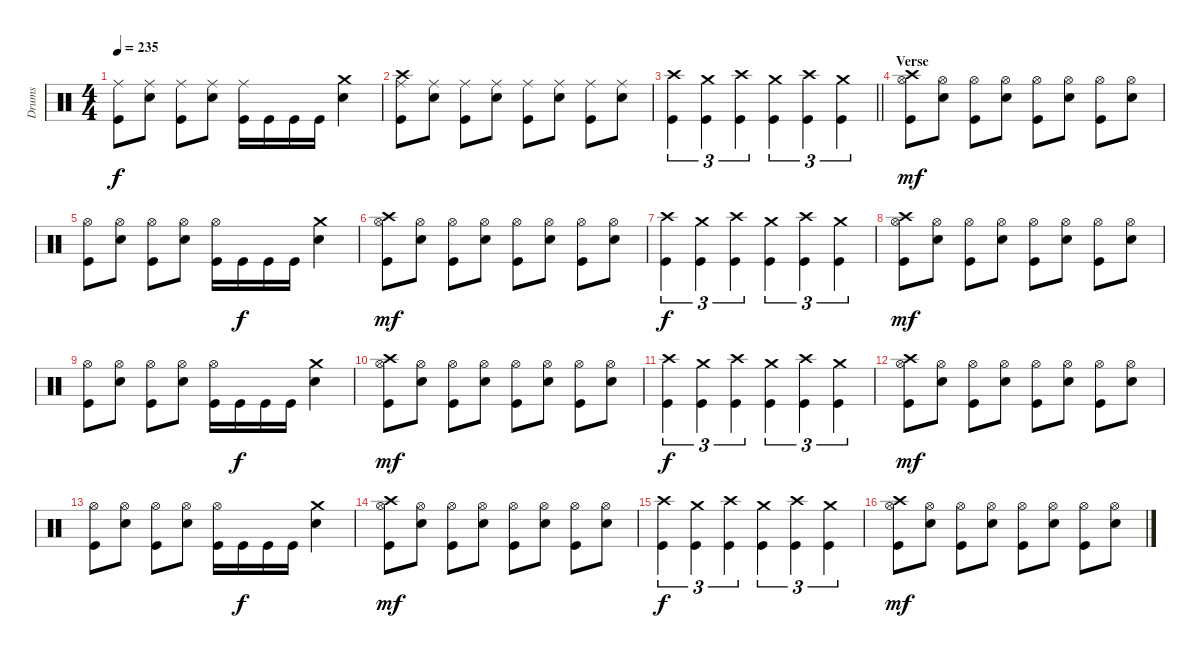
\track ("Drums" "Drums") {instrument percussion}
\staff {score}
\articulation defaults
\ts (4 4)
\tempo 235
\clef neutral
\ks c
("Ride (middle)" "Kick (hit)").8{dy f} ("Ride (middle)" "Electric Snare (hit)").8 ("Ride (middle)" "Kick (hit)").8 ("Ride (middle)" "Electric Snare (hit)").8 ("Ride (middle)" "Kick (hit)").16 "Kick (hit)".16 "Kick (hit)".16 "Kick (hit)".16 ("Crash medium (hit)" "Electric Snare (hit)").4 |
("Crash high (hit)" "Ride (middle)" "Kick (hit)").8 ("Ride (middle)" "Electric Snare (hit)").8 ("Ride (middle)" "Kick (hit)").8 ("Ride (middle)" "Electric Snare (hit)").8 ("Ride (middle)" "Kick (hit)").8 ("Ride (middle)" "Electric Snare (hit)").8 ("Ride (middle)" "Kick (hit)").8 ("Ride (middle)" "Electric Snare (hit)").8 |
\barLineRight lightlight
("Crash high (hit)" "Kick (hit)").4{tu (3 2)} ("Crash medium (hit)" "Kick (hit)").4{tu (3 2)} ("Crash high (hit)" "Kick (hit)").4{tu (3 2)} ("Crash medium (hit)" "Kick (hit)").4{tu (3 2)} ("Crash high (hit)" "Kick (hit)").4{tu (3 2)} ("Crash medium (hit)" "Kick (hit)").4{tu (3 2)} |
\section ("" "Verse")
("Crash high (hit)" "Hi-Hat (open)" "Kick (hit)").8{dy mf} ("Hi-Hat (open)" "Electric Snare (hit)").8 ("Hi-Hat (open)" "Kick (hit)").8 ("Hi-Hat (open)" "Electric Snare (hit)").8 ("Hi-Hat (open)" "Kick (hit)").8 ("Hi-Hat (open)" "Electric Snare (hit)").8 ("Hi-Hat (open)" "Kick (hit)").8 ("Hi-Hat (open)" "Electric Snare (hit)").8 |
("Hi-Hat (open)" "Kick (hit)").8 ("Hi-Hat (open)" "Electric Snare (hit)").8 ("Hi-Hat (open)" "Kick (hit)").8 ("Hi-Hat (open)" "Electric Snare (hit)").8 ("Hi-Hat (open)" "Kick (hit)").16 "Kick (hit)".16{dy f} "Kick (hit)".16 "Kick (hit)".16 ("Crash medium (hit)" "Electric Snare (hit)").4 |
("Crash high (hit)" "Hi-Hat (open)" "Kick (hit)").8{dy mf} ("Hi-Hat (open)" "Electric Snare (hit)").8 ("Hi-Hat (open)" "Kick (hit)").8 ("Hi-Hat (open)" "Electric Snare (hit)").8 ("Hi-Hat (open)" "Kick (hit)").8 ("Hi-Hat (open)" "Electric Snare (hit)").8 ("Hi-Hat (open)" "Kick (hit)").8 ("Hi-Hat (open)" "Electric Snare (hit)").8 |
("Crash high (hit)" "Kick (hit)").4{tu (3 2) dy f} ("Crash medium (hit)" "Kick (hit)").4{tu (3 2)} ("Crash high (hit)" "Kick (hit)").4{tu (3 2)} ("Crash medium (hit)" "Kick (hit)").4{tu (3 2)} ("Crash high (hit)" "Kick (hit)").4{tu (3 2)} ("Crash medium (hit)" "Kick (hit)").4{tu (3 2)} |
("Crash high (hit)" "Hi-Hat (open)" "Kick (hit)").8{dy mf} ("Hi-Hat (open)" "Electric Snare (hit)").8 ("Hi-Hat (open)" "Kick (hit)").8 ("Hi-Hat (open)" "Electric Snare (hit)").8 ("Hi-Hat (open)" "Kick (hit)").8 ("Hi-Hat (open)" "Electric Snare (hit)").8 ("Hi-Hat (open)" "Kick (hit)").8 ("Hi-Hat (open)" "Electric Snare (hit)").8 |
("Hi-Hat (open)" "Kick (hit)").8 ("Hi-Hat (open)" "Electric Snare (hit)").8 ("Hi-Hat (open)" "Kick (hit)").8 ("Hi-Hat (open)" "Electric Snare (hit)").8 ("Hi-Hat (open)" "Kick (hit)").16 "Kick (hit)".16{dy f} "Kick (hit)".16 "Kick (hit)".16 ("Crash medium (hit)" "Electric Snare (hit)").4 |
("Crash high (hit)" "Hi-Hat (open)" "Kick (hit)").8{dy mf} ("Hi-Hat (open)" "Electric Snare (hit)").8 ("Hi-Hat (open)" "Kick (hit)").8 ("Hi-Hat (open)" "Electric Snare (hit)").8 ("Hi-Hat (open)" "Kick (hit)").8 ("Hi-Hat (open)" "Electric Snare (hit)").8 ("Hi-Hat (open)" "Kick (hit)").8 ("Hi-Hat (open)" "Electric Snare (hit)").8 |
("Crash high (hit)" "Kick (hit)").4{tu (3 2) dy f} ("Crash medium (hit)" "Kick (hit)").4{tu (3 2)} ("Crash high (hit)" "Kick (hit)").4{tu (3 2)} ("Crash medium (hit)" "Kick (hit)").4{tu (3 2)} ("Crash high (hit)" "Kick (hit)").4{tu (3 2)} ("Crash medium (hit)" "Kick (hit)").4{tu (3 2)} |
("Crash high (hit)" "Hi-Hat (open)" "Kick (hit)").8{dy mf} ("Hi-Hat (open)" "Electric Snare (hit)").8 ("Hi-Hat (open)" "Kick (hit)").8 ("Hi-Hat (open)" "Electric Snare (hit)").8 ("Hi-Hat (open)" "Kick (hit)").8 ("Hi-Hat (open)" "Electric Snare (hit)").8 ("Hi-Hat (open)" "Kick (hit)").8 ("Hi-Hat (open)" "Electric Snare (hit)").8 |
("Hi-Hat (open)" "Kick (hit)").8 ("Hi-Hat (open)" "Electric Snare (hit)").8 ("Hi-Hat (open)" "Kick (hit)").8 ("Hi-Hat (open)" "Electric Snare (hit)").8 ("Hi-Hat (open)" "Kick (hit)").16 "Kick (hit)".16{dy f} "Kick (hit)".16 "Kick (hit)".16 ("Crash medium (hit)" "Electric Snare (hit)").4 |
("Crash high (hit)" "Hi-Hat (open)" "Kick (hit)").8{dy mf} ("Hi-Hat (open)" "Electric Snare (hit)").8 ("Hi-Hat (open)" "Kick (hit)").8 ("Hi-Hat (open)" "Electric Snare (hit)").8 ("Hi-Hat (open)" "Kick (hit)").8 ("Hi-Hat (open)" "Electric Snare (hit)").8 ("Hi-Hat (open)" "Kick (hit)").8 ("Hi-Hat (open)" "Electric Snare (hit)").8 |
("Crash high (hit)" "Kick (hit)").4{tu (3 2) dy f} ("Crash medium (hit)" "Kick (hit)").4{tu (3 2)} ("Crash high (hit)" "Kick (hit)").4{tu (3 2)} ("Crash medium (hit)" "Kick (hit)").4{tu (3 2)} ("Crash high (hit)" "Kick (hit)").4{tu (3 2)} ("Crash medium (hit)" "Kick (hit)").4{tu (3 2)} |
("Crash high (hit)" "Hi-Hat (open)" "Kick (hit)").8{dy mf} ("Hi-Hat (open)" "Electric Snare (hit)").8 ("Hi-Hat (open)" "Kick (hit)").8 ("Hi-Hat (open)" "Electric Snare (hit)").8 ("Hi-Hat (open)" "Kick (hit)").8 ("Hi-Hat (open)" "Electric Snare (hit)").8 ("Hi-Hat (open)" "Kick (hit)").8 ("Hi-Hat (open)" "Electric Snare (hit)").8
